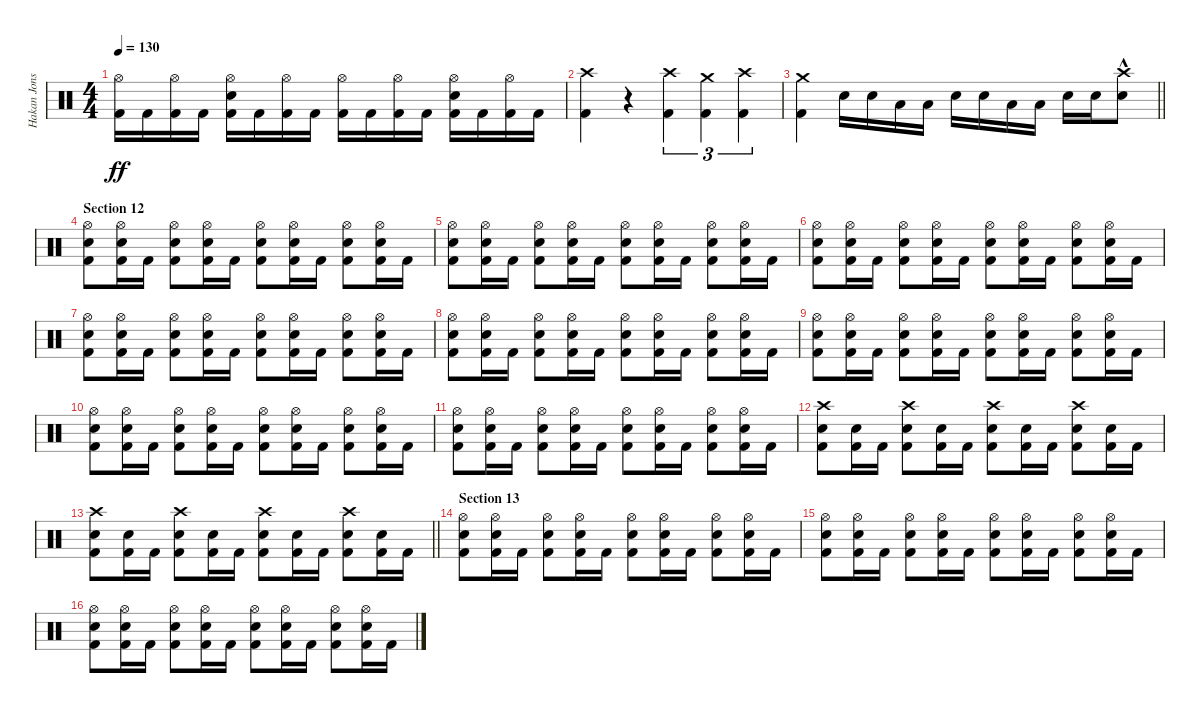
\track ("Hakan Jonsson" "Hakan Jons") {instrument percussion}
\staff {score}
\articulation defaults
\ts (4 4)
\tempo 130
\clef neutral
\ks c
("Hi-Hat (open)" "Kick (hit) 2").16{dy ff} "Kick (hit) 2".16 ("Hi-Hat (open)" "Kick (hit) 2").16 "Kick (hit) 2".16 ("Hi-Hat (open)" "Electric Snare (hit)" "Kick (hit) 2").16 "Kick (hit) 2".16 ("Hi-Hat (open)" "Kick (hit) 2").16 "Kick (hit) 2".16 ("Hi-Hat (open)" "Kick (hit) 2").16 "Kick (hit) 2".16 ("Hi-Hat (open)" "Kick (hit) 2").16 "Kick (hit) 2".16 ("Hi-Hat (open)" "Electric Snare (hit)" "Kick (hit) 2").16 "Kick (hit) 2".16 ("Hi-Hat (open)" "Kick (hit) 2").16 "Kick (hit) 2".16 |
("Crash high (hit)" "Kick (hit) 2").4 r.4 ("Crash high (hit)" "Kick (hit) 2").4{tu (3 2)} ("Crash medium (hit)" "Kick (hit) 2").4{tu (3 2)} ("Crash high (hit)" "Kick (hit) 2").4{tu (3 2)} |
\barLineRight lightlight
("Crash medium (hit)" "Kick (hit) 2").4 "Electric Snare (hit)".16 "Electric Snare (hit)".16 "Low Tom (hit)".16 "Low Tom (hit)".16 "Electric Snare (hit)".16 "Electric Snare (hit)".16 "Low Tom (hit)".16 "Low Tom (hit)".16 "Electric Snare (hit)".16 "Electric Snare (hit)".16 ("Crash high (hit)"{hac} "Electric Snare (hit)"{hac}).8 |
\section ("" "Section 12")
("Hi-Hat (open)" "Electric Snare (hit)" "Kick (hit) 2").8 ("Hi-Hat (open)" "Electric Snare (hit)" "Kick (hit) 2").16 "Kick (hit) 2".16 ("Hi-Hat (open)" "Electric Snare (hit)" "Kick (hit) 2").8 ("Hi-Hat (open)" "Electric Snare (hit)" "Kick (hit) 2").16 "Kick (hit) 2".16 ("Hi-Hat (open)" "Electric Snare (hit)" "Kick (hit) 2").8 ("Hi-Hat (open)" "Electric Snare (hit)" "Kick (hit) 2").16 "Kick (hit) 2".16 ("Hi-Hat (open)" "Electric Snare (hit)" "Kick (hit) 2").8 ("Hi-Hat (open)" "Electric Snare (hit)" "Kick (hit) 2").16 "Kick (hit) 2".16 |
("Hi-Hat (open)" "Electric Snare (hit)" "Kick (hit) 2").8 ("Hi-Hat (open)" "Electric Snare (hit)" "Kick (hit) 2").16 "Kick (hit) 2".16 ("Hi-Hat (open)" "Electric Snare (hit)" "Kick (hit) 2").8 ("Hi-Hat (open)" "Electric Snare (hit)" "Kick (hit) 2").16 "Kick (hit) 2".16 ("Hi-Hat (open)" "Electric Snare (hit)" "Kick (hit) 2").8 ("Hi-Hat (open)" "Electric Snare (hit)" "Kick (hit) 2").16 "Kick (hit) 2".16 ("Hi-Hat (open)" "Electric Snare (hit)" "Kick (hit) 2").8 ("Hi-Hat (open)" "Electric Snare (hit)" "Kick (hit) 2").16 "Kick (hit) 2".16 |
("Hi-Hat (open)" "Electric Snare (hit)" "Kick (hit) 2").8 ("Hi-Hat (open)" "Electric Snare (hit)" "Kick (hit) 2").16 "Kick (hit) 2".16 ("Hi-Hat (open)" "Electric Snare (hit)" "Kick (hit) 2").8 ("Hi-Hat (open)" "Electric Snare (hit)" "Kick (hit) 2").16 "Kick (hit) 2".16 ("Hi-Hat (open)" "Electric Snare (hit)" "Kick (hit) 2").8 ("Hi-Hat (open)" "Electric Snare (hit)" "Kick (hit) 2").16 "Kick (hit) 2".16 ("Hi-Hat (open)" "Electric Snare (hit)" "Kick (hit) 2").8 ("Hi-Hat (open)" "Electric Snare (hit)" "Kick (hit) 2").16 "Kick (hit) 2".16 |
("Hi-Hat (open)" "Electric Snare (hit)" "Kick (hit) 2").8 ("Hi-Hat (open)" "Electric Snare (hit)" "Kick (hit) 2").16 "Kick (hit) 2".16 ("Hi-Hat (open)" "Electric Snare (hit)" "Kick (hit) 2").8 ("Hi-Hat (open)" "Electric Snare (hit)" "Kick (hit) 2").16 "Kick (hit) 2".16 ("Hi-Hat (open)" "Electric Snare (hit)" "Kick (hit) 2").8 ("Hi-Hat (open)" "Electric Snare (hit)" "Kick (hit) 2").16 "Kick (hit) 2".16 ("Hi-Hat (open)" "Electric Snare (hit)" "Kick (hit) 2").8 ("Hi-Hat (open)" "Electric Snare (hit)" "Kick (hit) 2").16 "Kick (hit) 2".16 |
("Hi-Hat (open)" "Electric Snare (hit)" "Kick (hit) 2").8 ("Hi-Hat (open)" "Electric Snare (hit)" "Kick (hit) 2").16 "Kick (hit) 2".16 ("Hi-Hat (open)" "Electric Snare (hit)" "Kick (hit) 2").8 ("Hi-Hat (open)" "Electric Snare (hit)" "Kick (hit) 2").16 "Kick (hit) 2".16 ("Hi-Hat (open)" "Electric Snare (hit)" "Kick (hit) 2").8 ("Hi-Hat (open)" "Electric Snare (hit)" "Kick (hit) 2").16 "Kick (hit) 2".16 ("Hi-Hat (open)" "Electric Snare (hit)" "Kick (hit) 2").8 ("Hi-Hat (open)" "Electric Snare (hit)" "Kick (hit) 2").16 "Kick (hit) 2".16 |
("Hi-Hat (open)" "Electric Snare (hit)" "Kick (hit) 2").8 ("Hi-Hat (open)" "Electric Snare (hit)" "Kick (hit) 2").16 "Kick (hit) 2".16 ("Hi-Hat (open)" "Electric Snare (hit)" "Kick (hit) 2").8 ("Hi-Hat (open)" "Electric Snare (hit)" "Kick (hit) 2").16 "Kick (hit) 2".16 ("Hi-Hat (open)" "Electric Snare (hit)" "Kick (hit) 2").8 ("Hi-Hat (open)" "Electric Snare (hit)" "Kick (hit) 2").16 "Kick (hit) 2".16 ("Hi-Hat (open)" "Electric Snare (hit)" "Kick (hit) 2").8 ("Hi-Hat (open)" "Electric Snare (hit)" "Kick (hit) 2").16 "Kick (hit) 2".16 |
("Hi-Hat (open)" "Electric Snare (hit)" "Kick (hit) 2").8 ("Hi-Hat (open)" "Electric Snare (hit)" "Kick (hit) 2").16 "Kick (hit) 2".16 ("Hi-Hat (open)" "Electric Snare (hit)" "Kick (hit) 2").8 ("Hi-Hat (open)" "Electric Snare (hit)" "Kick (hit) 2").16 "Kick (hit) 2".16 ("Hi-Hat (open)" "Electric Snare (hit)" "Kick (hit) 2").8 ("Hi-Hat (open)" "Electric Snare (hit)" "Kick (hit) 2").16 "Kick (hit) 2".16 ("Hi-Hat (open)" "Electric Snare (hit)" "Kick (hit) 2").8 ("Hi-Hat (open)" "Electric Snare (hit)" "Kick (hit) 2").16 "Kick (hit) 2".16 |
("Hi-Hat (open)" "Electric Snare (hit)" "Kick (hit) 2").8 ("Hi-Hat (open)" "Electric Snare (hit)" "Kick (hit) 2").16 "Kick (hit) 2".16 ("Hi-Hat (open)" "Electric Snare (hit)" "Kick (hit) 2").8 ("Hi-Hat (open)" "Electric Snare (hit)" "Kick (hit) 2").16 "Kick (hit) 2".16 ("Hi-Hat (open)" "Electric Snare (hit)" "Kick (hit) 2").8 ("Hi-Hat (open)" "Electric Snare (hit)" "Kick (hit) 2").16 "Kick (hit) 2".16 ("Hi-Hat (open)" "Electric Snare (hit)" "Kick (hit) 2").8 ("Hi-Hat (open)" "Electric Snare (hit)" "Kick (hit) 2").16 "Kick (hit) 2".16 |
("Crash high (hit)" "Electric Snare (hit)" "Kick (hit) 2").8 ("Electric Snare (hit)" "Kick (hit) 2").16 "Kick (hit) 2".16 ("Crash high (hit)" "Electric Snare (hit)" "Kick (hit) 2").8 ("Electric Snare (hit)" "Kick (hit) 2").16 "Kick (hit) 2".16 ("Crash high (hit)" "Electric Snare (hit)" "Kick (hit) 2").8 ("Electric Snare (hit)" "Kick (hit) 2").16 "Kick (hit) 2".16 ("Crash high (hit)" "Electric Snare (hit)" "Kick (hit) 2").8 ("Electric Snare (hit)" "Kick (hit) 2").16 "Kick (hit) 2".16 |
\barLineRight lightlight
("Crash high (hit)" "Electric Snare (hit)" "Kick (hit) 2").8 ("Electric Snare (hit)" "Kick (hit) 2").16 "Kick (hit) 2".16 ("Crash high (hit)" "Electric Snare (hit)" "Kick (hit) 2").8 ("Electric Snare (hit)" "Kick (hit) 2").16 "Kick (hit) 2".16 ("Crash high (hit)" "Electric Snare (hit)" "Kick (hit) 2").8 ("Electric Snare (hit)" "Kick (hit) 2").16 "Kick (hit) 2".16 ("Crash high (hit)" "Electric Snare (hit)" "Kick (hit) 2").8 ("Electric Snare (hit)" "Kick (hit) 2").16 "Kick (hit) 2".16 |
\section ("" "Section 13")
("Hi-Hat (open)" "Electric Snare (hit)" "Kick (hit) 2").8 ("Hi-Hat (open)" "Electric Snare (hit)" "Kick (hit) 2").16 "Kick (hit) 2".16 ("Hi-Hat (open)" "Electric Snare (hit)" "Kick (hit) 2").8 ("Hi-Hat (open)" "Electric Snare (hit)" "Kick (hit) 2").16 "Kick (hit) 2".16 ("Hi-Hat (open)" "Electric Snare (hit)" "Kick (hit) 2").8 ("Hi-Hat (open)" "Electric Snare (hit)" "Kick (hit) 2").16 "Kick (hit) 2".16 ("Hi-Hat (open)" "Electric Snare (hit)" "Kick (hit) 2").8 ("Hi-Hat (open)" "Electric Snare (hit)" "Kick (hit) 2").16 "Kick (hit) 2".16 |
("Hi-Hat (open)" "Electric Snare (hit)" "Kick (hit) 2").8 ("Hi-Hat (open)" "Electric Snare (hit)" "Kick (hit) 2").16 "Kick (hit) 2".16 ("Hi-Hat (open)" "Electric Snare (hit)" "Kick (hit) 2").8 ("Hi-Hat (open)" "Electric Snare (hit)" "Kick (hit) 2").16 "Kick (hit) 2".16 ("Hi-Hat (open)" "Electric Snare (hit)" "Kick (hit) 2").8 ("Hi-Hat (open)" "Electric Snare (hit)" "Kick (hit) 2").16 "Kick (hit) 2".16 ("Hi-Hat (open)" "Electric Snare (hit)" "Kick (hit) 2").8 ("Hi-Hat (open)" "Electric Snare (hit)" "Kick (hit) 2").16 "Kick (hit) 2".16 |
("Hi-Hat (open)" "Electric Snare (hit)" "Kick (hit) 2").8 ("Hi-Hat (open)" "Electric Snare (hit)" "Kick (hit) 2").16 "Kick (hit) 2".16 ("Hi-Hat (open)" "Electric Snare (hit)" "Kick (hit) 2").8 ("Hi-Hat (open)" "Electric Snare (hit)" "Kick (hit) 2").16 "Kick (hit) 2".16 ("Hi-Hat (open)" "Electric Snare (hit)" "Kick (hit) 2").8 ("Hi-Hat (open)" "Electric Snare (hit)" "Kick (hit) 2").16 "Kick (hit) 2".16 ("Hi-Hat (open)" "Electric Snare (hit)" "Kick (hit) 2").8 ("Hi-Hat (open)" "Electric Snare (hit)" "Kick (hit) 2").16 "Kick (hit) 2".16
